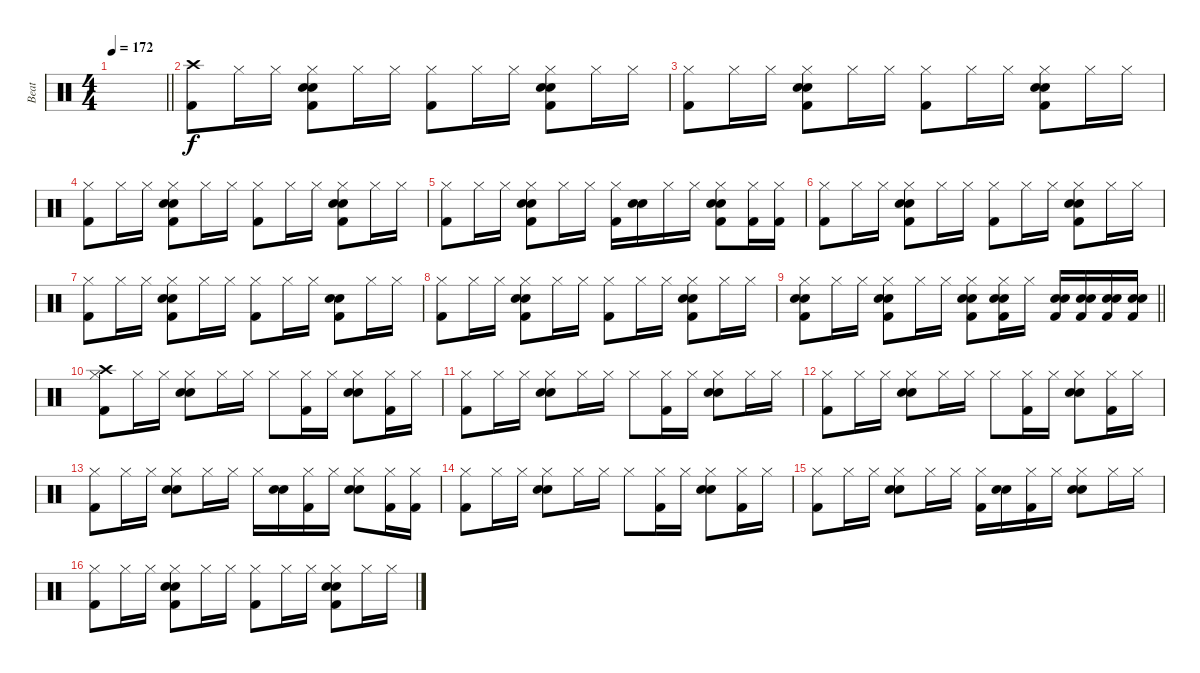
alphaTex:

\track ("Beat" "Beat") {instrument percussion}
\staff {score}
\articulation defaults
\ts (4 4)
\tempo 172
\clef neutral
\barLineRight lightlight
\ks c
|
\section ("" " ")
("Kick (hit) 2" "Crash high (hit)").8 "Hi-Hat (closed)".16 "Hi-Hat (closed)".16 ("Kick (hit) 2" "Hi-Hat (closed)" "Snare (hit) 2" "Hand Clap (hit)").8 "Hi-Hat (closed)".16 "Hi-Hat (closed)".16 ("Kick (hit) 2" "Hi-Hat (closed)").8 "Hi-Hat (closed)".16 "Hi-Hat (closed)".16 ("Kick (hit) 2" "Hi-Hat (closed)" "Snare (hit) 2" "Hand Clap (hit)").8 "Hi-Hat (closed)".16 "Hi-Hat (closed)".16 |
("Kick (hit) 2" "Hi-Hat (closed)").8 "Hi-Hat (closed)".16 "Hi-Hat (closed)".16 ("Kick (hit) 2" "Hi-Hat (closed)" "Snare (hit) 2" "Hand Clap (hit)").8 "Hi-Hat (closed)".16 "Hi-Hat (closed)".16 ("Kick (hit) 2" "Hi-Hat (closed)").8 "Hi-Hat (closed)".16 "Hi-Hat (closed)".16 ("Kick (hit) 2" "Hi-Hat (closed)" "Snare (hit) 2" "Hand Clap (hit)").8 "Hi-Hat (closed)".16 "Hi-Hat (closed)".16 |
("Kick (hit) 2" "Hi-Hat (closed)").8 "Hi-Hat (closed)".16 "Hi-Hat (closed)".16 ("Kick (hit) 2" "Hi-Hat (closed)" "Snare (hit) 2" "Hand Clap (hit)").8 "Hi-Hat (closed)".16 "Hi-Hat (closed)".16 ("Kick (hit) 2" "Hi-Hat (closed)").8 "Hi-Hat (closed)".16 "Hi-Hat (closed)".16 ("Kick (hit) 2" "Hi-Hat (closed)" "Snare (hit) 2" "Hand Clap (hit)").8 "Hi-Hat (closed)".16 "Hi-Hat (closed)".16 |
("Kick (hit) 2" "Hi-Hat (closed)").8 "Hi-Hat (closed)".16 "Hi-Hat (closed)".16 ("Kick (hit) 2" "Hi-Hat (closed)" "Snare (hit) 2" "Hand Clap (hit)").8 "Hi-Hat (closed)".16 "Hi-Hat (closed)".16 ("Kick (hit) 2" "Hi-Hat (closed)").16 ("Snare (hit) 2" "Hand Clap (hit)").16 "Hi-Hat (closed)".16 "Hi-Hat (closed)".16 ("Kick (hit) 2" "Hi-Hat (closed)" "Snare (hit) 2" "Hand Clap (hit)").8 ("Kick (hit) 2" "Hi-Hat (closed)").16 ("Kick (hit) 2" "Hi-Hat (closed)").16 |
("Kick (hit) 2" "Hi-Hat (closed)").8 "Hi-Hat (closed)".16 "Hi-Hat (closed)".16 ("Kick (hit) 2" "Hi-Hat (closed)" "Snare (hit) 2" "Hand Clap (hit)").8 "Hi-Hat (closed)".16 "Hi-Hat (closed)".16 ("Kick (hit) 2" "Hi-Hat (closed)").8 "Hi-Hat (closed)".16 "Hi-Hat (closed)".16 ("Kick (hit) 2" "Hi-Hat (closed)" "Snare (hit) 2" "Hand Clap (hit)").8 "Hi-Hat (closed)".16 "Hi-Hat (closed)".16 |
("Kick (hit) 2" "Hi-Hat (closed)").8 "Hi-Hat (closed)".16 "Hi-Hat (closed)".16 ("Kick (hit) 2" "Hi-Hat (closed)" "Snare (hit) 2" "Hand Clap (hit)").8 "Hi-Hat (closed)".16 "Hi-Hat (closed)".16 ("Kick (hit) 2" "Hi-Hat (closed)").8 "Hi-Hat (closed)".16 "Hi-Hat (closed)".16 ("Kick (hit) 2" "Snare (hit) 2" "Hand Clap (hit)").8 "Hi-Hat (closed)".16 "Hi-Hat (closed)".16 |
("Kick (hit) 2" "Hi-Hat (closed)").8 "Hi-Hat (closed)".16 "Hi-Hat (closed)".16 ("Kick (hit) 2" "Hi-Hat (closed)" "Snare (hit) 2" "Hand Clap (hit)").8 "Hi-Hat (closed)".16 "Hi-Hat (closed)".16 ("Kick (hit) 2" "Hi-Hat (closed)").8 "Hi-Hat (closed)".16 "Hi-Hat (closed)".16 ("Kick (hit) 2" "Hi-Hat (closed)" "Snare (hit) 2" "Hand Clap (hit)").8 "Hi-Hat (closed)".16 "Hi-Hat (closed)".16 |
\barLineRight lightlight
("Kick (hit) 2" "Hi-Hat (closed)" "Snare (hit) 2" "Hand Clap (hit)").8 "Hi-Hat (closed)".16 "Hi-Hat (closed)".16 ("Kick (hit) 2" "Hi-Hat (closed)" "Snare (hit) 2" "Hand Clap (hit)").8 "Hi-Hat (closed)".16 "Hi-Hat (closed)".16 ("Kick (hit) 2" "Hi-Hat (closed)" "Snare (hit) 2" "Hand Clap (hit)").8 ("Kick (hit) 2" "Hi-Hat (closed)" "Snare (hit) 2" "Hand Clap (hit)").16 "Hi-Hat (closed)".16 ("Kick (hit) 2" "Snare (hit) 2" "Hand Clap (hit)").16 ("Kick (hit) 2" "Snare (hit) 2" "Hand Clap (hit)").16 ("Kick (hit) 2" "Snare (hit) 2" "Hand Clap (hit)").16 ("Kick (hit) 2" "Snare (hit) 2" "Hand Clap (hit)").16 |
("Kick (hit) 2" "Hi-Hat (closed)" "Crash high (hit)").8 "Hi-Hat (closed)".16 "Hi-Hat (closed)".16 ("Hi-Hat (closed)" "Snare (hit) 2" "Hand Clap (hit)").8 "Hi-Hat (closed)".16 "Hi-Hat (closed)".16 "Hi-Hat (closed)".8 ("Kick (hit) 2" "Hi-Hat (closed)").16 "Hi-Hat (closed)".16 ("Hi-Hat (closed)" "Snare (hit) 2" "Hand Clap (hit)").8 ("Kick (hit) 2" "Hi-Hat (closed)").16 "Hi-Hat (closed)".16 |
("Kick (hit) 2" "Hi-Hat (closed)").8 "Hi-Hat (closed)".16 "Hi-Hat (closed)".16 ("Hi-Hat (closed)" "Snare (hit) 2" "Hand Clap (hit)").8 "Hi-Hat (closed)".16 "Hi-Hat (closed)".16 "Hi-Hat (closed)".8 ("Kick (hit) 2" "Hi-Hat (closed)").16 "Hi-Hat (closed)".16 ("Hi-Hat (closed)" "Snare (hit) 2" "Hand Clap (hit)").8 "Hi-Hat (closed)".16 "Hi-Hat (closed)".16 |
("Kick (hit) 2" "Hi-Hat (closed)").8 "Hi-Hat (closed)".16 "Hi-Hat (closed)".16 ("Hi-Hat (closed)" "Snare (hit) 2" "Hand Clap (hit)").8 "Hi-Hat (closed)".16 "Hi-Hat (closed)".16 "Hi-Hat (closed)".8 ("Kick (hit) 2" "Hi-Hat (closed)").16 "Hi-Hat (closed)".16 ("Hi-Hat (closed)" "Snare (hit) 2" "Hand Clap (hit)").8 ("Kick (hit) 2" "Hi-Hat (closed)").16 "Hi-Hat (closed)".16 |
("Kick (hit) 2" "Hi-Hat (closed)").8 "Hi-Hat (closed)".16 "Hi-Hat (closed)".16 ("Hi-Hat (closed)" "Snare (hit) 2" "Hand Clap (hit)").8 "Hi-Hat (closed)".16 "Hi-Hat (closed)".16 "Hi-Hat (closed)".16 ("Snare (hit) 2" "Hand Clap (hit)").16 ("Kick (hit) 2" "Hi-Hat (closed)").16 "Hi-Hat (closed)".16 ("Hi-Hat (closed)" "Snare (hit) 2" "Hand Clap (hit)").8 ("Kick (hit) 2" "Hi-Hat (closed)").16 ("Kick (hit) 2" "Hi-Hat (closed)").16 |
("Kick (hit) 2" "Hi-Hat (closed)").8 "Hi-Hat (closed)".16 "Hi-Hat (closed)".16 ("Hi-Hat (closed)" "Snare (hit) 2" "Hand Clap (hit)").8 "Hi-Hat (closed)".16 "Hi-Hat (closed)".16 "Hi-Hat (closed)".8 ("Kick (hit) 2" "Hi-Hat (closed)").16 "Hi-Hat (closed)".16 ("Hi-Hat (closed)" "Snare (hit) 2" "Hand Clap (hit)").8 ("Kick (hit) 2" "Hi-Hat (closed)").16 "Hi-Hat (closed)".16 |
("Kick (hit) 2" "Hi-Hat (closed)").8 "Hi-Hat (closed)".16 "Hi-Hat (closed)".16 ("Hi-Hat (closed)" "Snare (hit) 2" "Hand Clap (hit)").8 "Hi-Hat (closed)".16 "Hi-Hat (closed)".16 ("Kick (hit) 2" "Hi-Hat (closed)").16 ("Snare (hit) 2" "Hand Clap (hit)").16 ("Kick (hit) 2" "Hi-Hat (closed)").16 "Hi-Hat (closed)".16 ("Hi-Hat (closed)" "Snare (hit) 2" "Hand Clap (hit)").8 "Hi-Hat (closed)".16 "Hi-Hat (closed)".16 |
("Kick (hit) 2" "Hi-Hat (closed)").8 "Hi-Hat (closed)".16 "Hi-Hat (closed)".16 ("Kick (hit) 2" "Hi-Hat (closed)" "Snare (hit) 2" "Hand Clap (hit)").8 "Hi-Hat (closed)".16 "Hi-Hat (closed)".16 ("Kick (hit) 2" "Hi-Hat (closed)").8 "Hi-Hat (closed)".16 "Hi-Hat (closed)".16 ("Kick (hit) 2" "Hi-Hat (closed)" "Snare (hit) 2" "Hand Clap (hit)").8 "Hi-Hat (closed)".16 "Hi-Hat (closed)".16
